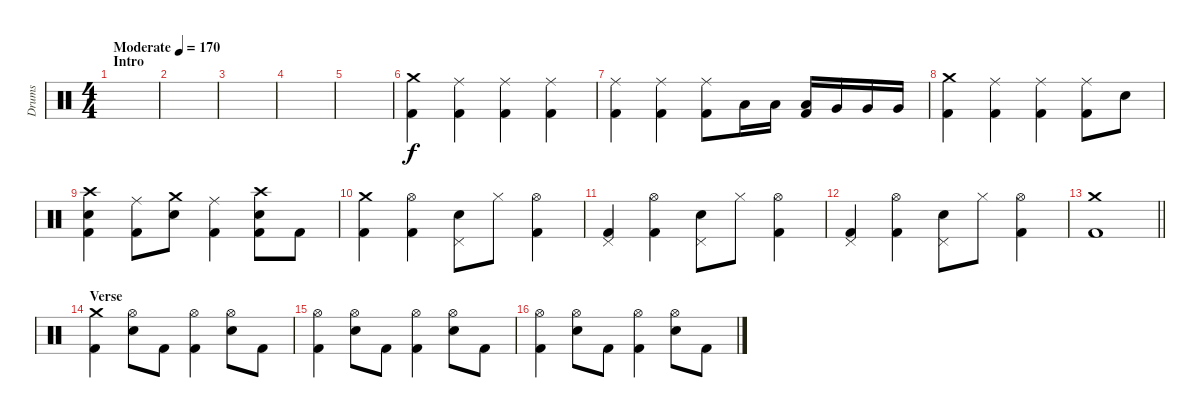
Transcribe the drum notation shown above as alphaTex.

\track ("Drums" "Drums") {instrument percussion}
\staff {score}
\articulation defaults
\ts (4 4)
\section ("" "Intro")
\tempo (170 "Moderate")
\clef neutral
\ks c
|
|
|
|
|
("Crash medium (hit)" "Kick (hit) 2").4 ("Ride (middle)" "Kick (hit) 2").4 ("Ride (middle)" "Kick (hit) 2").4 ("Ride (middle)" "Kick (hit) 2").4 |
("Ride (middle)" "Kick (hit) 2").4 ("Ride (middle)" "Kick (hit) 2").4 ("Ride (middle)" "Kick (hit) 2").8 "Low Tom (hit)".16 "Low Tom (hit)".16 ("Low Tom (hit)" "Kick (hit) 2").16 "Very Low Tom (hit)".16 "Very Low Tom (hit)".16 "Very Low Tom (hit)".16 |
("Crash medium (hit)" "Kick (hit) 2").4 ("Ride (middle)" "Kick (hit) 2").4 ("Ride (middle)" "Kick (hit) 2").4 ("Ride (middle)" "Kick (hit) 2").8 "Electric Snare (hit)".8 |
("Crash high (hit)" "Electric Snare (hit)" "Kick (hit) 2").4 ("Ride (middle)" "Kick (hit) 2").8 ("Crash medium (hit)" "Electric Snare (hit)").8 ("Ride (middle)" "Kick (hit) 2").4 ("Crash high (hit)" "Electric Snare (hit)" "Kick (hit) 2").8 "Kick (hit) 2".8 |
("Crash medium (hit)" "Kick (hit) 2").4 ("Hi-Hat (open)" "Kick (hit) 2").4 ("Pedal Hi-Hat (hit)" "Electric Snare (hit)").8 "Hi-Hat (closed)".8 ("Hi-Hat (open)" "Kick (hit) 2").4 |
("Pedal Hi-Hat (hit)" "Kick (hit) 2").4 ("Hi-Hat (open)" "Kick (hit) 2").4 ("Pedal Hi-Hat (hit)" "Electric Snare (hit)").8 "Hi-Hat (closed)".8 ("Hi-Hat (open)" "Kick (hit) 2").4 |
("Pedal Hi-Hat (hit)" "Kick (hit) 2").4 ("Hi-Hat (open)" "Kick (hit) 2").4 ("Pedal Hi-Hat (hit)" "Electric Snare (hit)").8 "Hi-Hat (closed)".8 ("Hi-Hat (open)" "Kick (hit) 2").4 |
\barLineRight lightlight
("Crash medium (hit)" "Kick (hit) 2").1 |
\section ("" "Verse")
("Crash medium (hit)" "Kick (hit) 2").4 ("Hi-Hat (open)" "Electric Snare (hit)").8 "Kick (hit) 2".8 ("Hi-Hat (open)" "Kick (hit) 2").4 ("Hi-Hat (open)" "Electric Snare (hit)").8 "Kick (hit) 2".8 |
("Hi-Hat (open)" "Kick (hit) 2").4 ("Hi-Hat (open)" "Electric Snare (hit)").8 "Kick (hit) 2".8 ("Hi-Hat (open)" "Kick (hit) 2").4 ("Hi-Hat (open)" "Electric Snare (hit)").8 "Kick (hit) 2".8 |
("Hi-Hat (open)" "Kick (hit) 2").4 ("Hi-Hat (open)" "Electric Snare (hit)").8 "Kick (hit) 2".8 ("Hi-Hat (open)" "Kick (hit) 2").4 ("Hi-Hat (open)" "Electric Snare (hit)").8 "Kick (hit) 2".8
